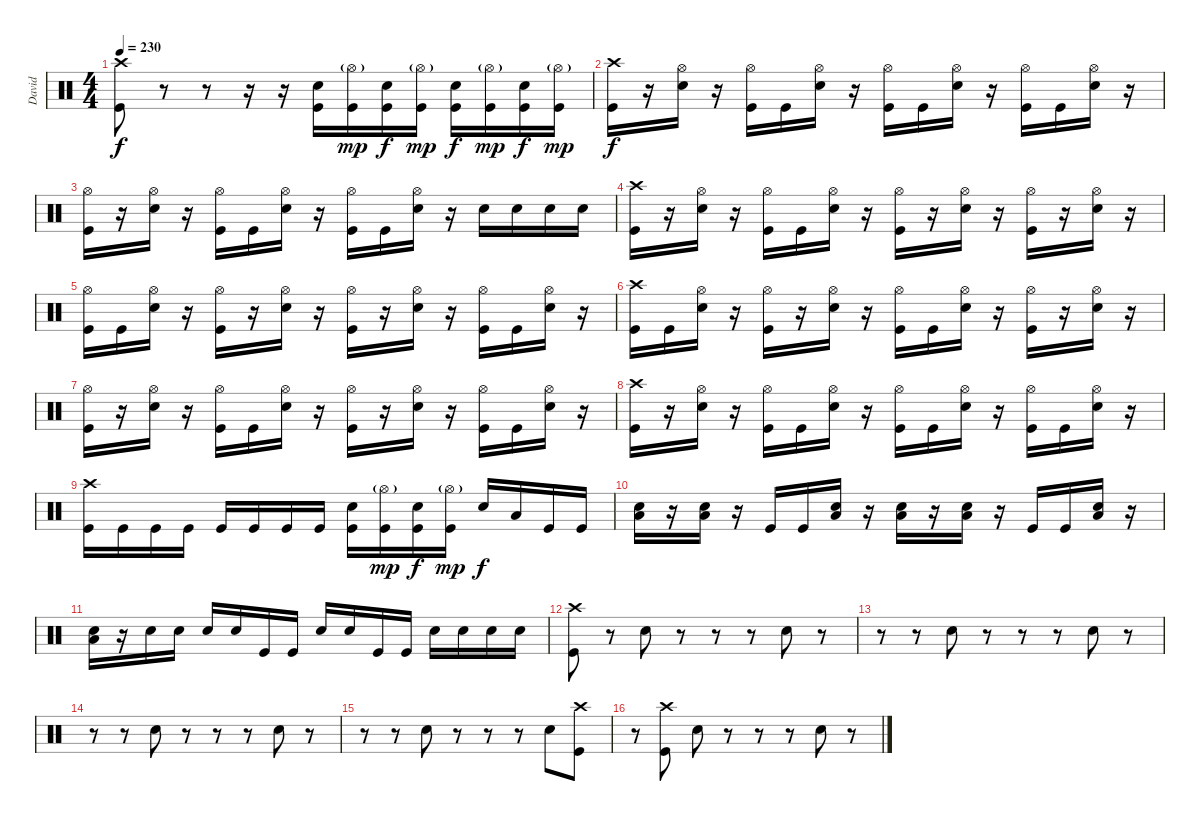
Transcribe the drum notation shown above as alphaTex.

\track ("David" "David") {instrument percussion}
\staff {score}
\articulation defaults
\ts (4 4)
\tempo 230
\clef neutral
\ks c
("Crash high (hit)" "Kick (hit)").8{dy f} r.8 r.8 r.16 r.16 ("Electric Snare (hit)" "Kick (hit)").16 ("Hi-Hat (open)"{g} "Kick (hit)").16{dy mp} ("Electric Snare (hit)" "Kick (hit)").16{dy f} ("Hi-Hat (open)"{g} "Kick (hit)").16{dy mp} ("Electric Snare (hit)" "Kick (hit)").16{dy f} ("Hi-Hat (open)"{g} "Kick (hit)").16{dy mp} ("Electric Snare (hit)" "Kick (hit)").16{dy f} ("Hi-Hat (open)"{g} "Kick (hit)").16{dy mp} |
("Crash high (hit)" "Kick (hit)").16{dy f} r.16 ("Hi-Hat (open)" "Electric Snare (hit)").16 r.16 ("Hi-Hat (open)" "Kick (hit)").16 "Kick (hit)".16 ("Hi-Hat (open)" "Electric Snare (hit)").16 r.16 ("Hi-Hat (open)" "Kick (hit)").16 "Kick (hit)".16 ("Hi-Hat (open)" "Electric Snare (hit)").16 r.16 ("Hi-Hat (open)" "Kick (hit)").16 "Kick (hit)".16 ("Hi-Hat (open)" "Electric Snare (hit)").16 r.16 |
("Hi-Hat (open)" "Kick (hit)").16 r.16 ("Hi-Hat (open)" "Electric Snare (hit)").16 r.16 ("Hi-Hat (open)" "Kick (hit)").16 "Kick (hit)".16 ("Hi-Hat (open)" "Electric Snare (hit)").16 r.16 ("Hi-Hat (open)" "Kick (hit)").16 "Kick (hit)".16 ("Hi-Hat (open)" "Electric Snare (hit)").16 r.16 "Electric Snare (hit)".16 "Electric Snare (hit)".16 "Electric Snare (hit)".16 "Electric Snare (hit)".16 |
("Crash high (hit)" "Kick (hit)").16 r.16 ("Hi-Hat (open)" "Electric Snare (hit)").16 r.16 ("Hi-Hat (open)" "Kick (hit)").16 "Kick (hit)".16 ("Hi-Hat (open)" "Electric Snare (hit)").16 r.16 ("Hi-Hat (open)" "Kick (hit)").16 r.16 ("Hi-Hat (open)" "Electric Snare (hit)").16 r.16 ("Hi-Hat (open)" "Kick (hit)").16 r.16 ("Hi-Hat (open)" "Electric Snare (hit)").16 r.16 |
("Hi-Hat (open)" "Kick (hit)").16 "Kick (hit)".16 ("Hi-Hat (open)" "Electric Snare (hit)").16 r.16 ("Hi-Hat (open)" "Kick (hit)").16 r.16 ("Hi-Hat (open)" "Electric Snare (hit)").16 r.16 ("Hi-Hat (open)" "Kick (hit)").16 r.16 ("Hi-Hat (open)" "Electric Snare (hit)").16 r.16 ("Hi-Hat (open)" "Kick (hit)").16 "Kick (hit)".16 ("Hi-Hat (open)" "Electric Snare (hit)").16 r.16 |
("Crash high (hit)" "Kick (hit)").16 "Kick (hit)".16 ("Hi-Hat (open)" "Electric Snare (hit)").16 r.16 ("Hi-Hat (open)" "Kick (hit)").16 r.16 ("Hi-Hat (open)" "Electric Snare (hit)").16 r.16 ("Hi-Hat (open)" "Kick (hit)").16 "Kick (hit)".16 ("Hi-Hat (open)" "Electric Snare (hit)").16 r.16 ("Hi-Hat (open)" "Kick (hit)").16 r.16 ("Hi-Hat (open)" "Electric Snare (hit)").16 r.16 |
("Hi-Hat (open)" "Kick (hit)").16 r.16 ("Hi-Hat (open)" "Electric Snare (hit)").16 r.16 ("Hi-Hat (open)" "Kick (hit)").16 "Kick (hit)".16 ("Hi-Hat (open)" "Electric Snare (hit)").16 r.16 ("Hi-Hat (open)" "Kick (hit)").16 r.16 ("Hi-Hat (open)" "Electric Snare (hit)").16 r.16 ("Hi-Hat (open)" "Kick (hit)").16 "Kick (hit)".16 ("Hi-Hat (open)" "Electric Snare (hit)").16 r.16 |
("Crash high (hit)" "Kick (hit)").16 r.16 ("Hi-Hat (open)" "Electric Snare (hit)").16 r.16 ("Hi-Hat (open)" "Kick (hit)").16 "Kick (hit)".16 ("Hi-Hat (open)" "Electric Snare (hit)").16 r.16 ("Hi-Hat (open)" "Kick (hit)").16 "Kick (hit)".16 ("Hi-Hat (open)" "Electric Snare (hit)").16 r.16 ("Hi-Hat (open)" "Kick (hit)").16 "Kick (hit)".16 ("Hi-Hat (open)" "Electric Snare (hit)").16 r.16 |
("Crash high (hit)" "Kick (hit)").16 "Kick (hit)".16 "Kick (hit)".16 "Kick (hit)".16 "Kick (hit)".16 "Kick (hit)".16 "Kick (hit)".16 "Kick (hit)".16 ("Electric Snare (hit)" "Kick (hit)").16 ("Hi-Hat (open)"{g} "Kick (hit)").16{dy mp} ("Electric Snare (hit)" "Kick (hit)").16{dy f} ("Hi-Hat (open)"{g} "Kick (hit)").16{dy mp} "Electric Snare (hit)".16{dy f} "Low Tom (hit)".16 "Kick (hit)".16 "Kick (hit)".16 |
("Electric Snare (hit)" "Low Floor Tom (hit)").16 r.16 ("Electric Snare (hit)" "Low Floor Tom (hit)").16 r.16 "Kick (hit)".16 "Kick (hit)".16 ("Electric Snare (hit)" "Low Floor Tom (hit)").16 r.16 ("Electric Snare (hit)" "Low Floor Tom (hit)").16 r.16 ("Electric Snare (hit)" "Low Floor Tom (hit)").16 r.16 "Kick (hit)".16 "Kick (hit)".16 ("Electric Snare (hit)" "Low Floor Tom (hit)").16 r.16 |
("Low Floor Tom (hit)" "Electric Snare (hit)").16 r.16 "Electric Snare (hit)".16 "Electric Snare (hit)".16 "Electric Snare (hit)".16 "Electric Snare (hit)".16 "Kick (hit)".16 "Kick (hit)".16 "Electric Snare (hit)".16 "Electric Snare (hit)".16 "Kick (hit)".16 "Kick (hit)".16 "Electric Snare (hit)".16 "Electric Snare (hit)".16 "Electric Snare (hit)".16 "Electric Snare (hit)".16 |
("Crash high (hit)" "Kick (hit)").8 r.8 "Electric Snare (hit)".8 r.8 r.8 r.8 "Electric Snare (hit)".8 r.8 |
r.8 r.8 "Electric Snare (hit)".8 r.8 r.8 r.8 "Electric Snare (hit)".8 r.8 |
r.8 r.8 "Electric Snare (hit)".8 r.8 r.8 r.8 "Electric Snare (hit)".8 r.8 |
r.8 r.8 "Electric Snare (hit)".8 r.8 r.8 r.8 "Electric Snare (hit)".8 ("Crash high (hit)" "Kick (hit)").8 |
r.8 ("Crash high (hit)" "Kick (hit)").8 "Electric Snare (hit)".8 r.8 r.8 r.8 "Electric Snare (hit)".8 r.8
